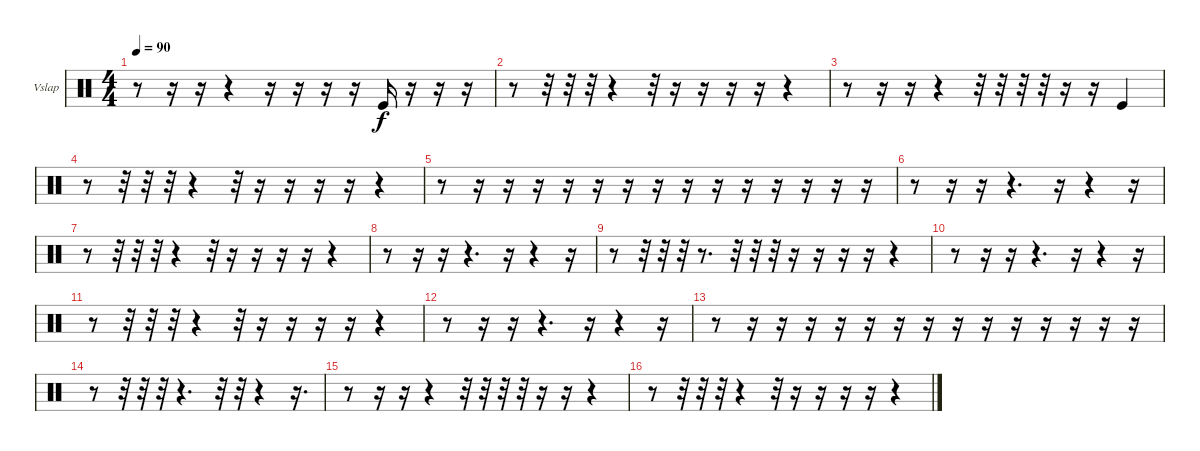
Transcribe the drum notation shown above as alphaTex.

\defaultSystemsLayout 4
\bracketExtendMode groupsimilarinstruments
\firstSystemTrackNameOrientation horizontal
\otherSystemsTrackNameOrientation horizontal
\track ("Vibraslap" "Vslap") {instrument percussion}
\staff {score}
\articulation defaults
\ts (4 4)
\tempo 90
\clef neutral
\scale
0.333333
\ks c
r.8{dy f} r.16 r.16 r.4 r.16 r.16 r.16 r.16 "Kick (hit)".16 r.16 r.16 r.16 |
\scale
0.333333 r.8 r.32 r.32 r.32 r.4 r.32 r.16 r.16 r.16 r.16 r.4 |
\scale
0.333333 r.8 r.16 r.16 r.4 r.32 r.32 r.32 r.32 r.16 r.16 "Kick (hit)".4 |
\scale
0.333333 r.8 r.32 r.32 r.32 r.4 r.32 r.16 r.16 r.16 r.16 r.4 |
\scale
0.333333 r.8 r.16 r.16 r.16 r.16 r.16 r.16 r.16 r.16 r.16 r.16 r.16 r.16 r.16 r.16 |
\scale
0.333333 r.8 r.16 r.16 r.4{d} r.16 r.4 r.16 |
\scale
0.333333 r.8 r.32 r.32 r.32 r.4 r.32 r.16 r.16 r.16 r.16 r.4 |
\scale
0.333333 r.8 r.16 r.16 r.4{d} r.16 r.4 r.16 |
\scale
0.333333 r.8 r.32 r.32 r.32 r.8{d} r.32 r.32 r.32 r.16 r.16 r.16 r.16 r.4 |
\scale
0.333333 r.8 r.16 r.16 r.4{d} r.16 r.4 r.16 |
\scale
0.333333 r.8 r.32 r.32 r.32 r.4 r.32 r.16 r.16 r.16 r.16 r.4 |
\scale
0.333333 r.8 r.16 r.16 r.4{d} r.16 r.4 r.16 |
\scale
0.333333 r.8 r.16 r.16 r.16 r.16 r.16 r.16 r.16 r.16 r.16 r.16 r.16 r.16 r.16 r.16 |
\scale
0.333333 r.8 r.32 r.32 r.32 r.4{d} r.32 r.32 r.4 r.16{d} |
\scale
0.333333 r.8 r.16 r.16 r.4 r.32 r.32 r.32 r.32 r.16 r.16 r.4 |
\scale
0.333333 r.8 r.32 r.32 r.32 r.4 r.32 r.16 r.16 r.16 r.16 r.4
